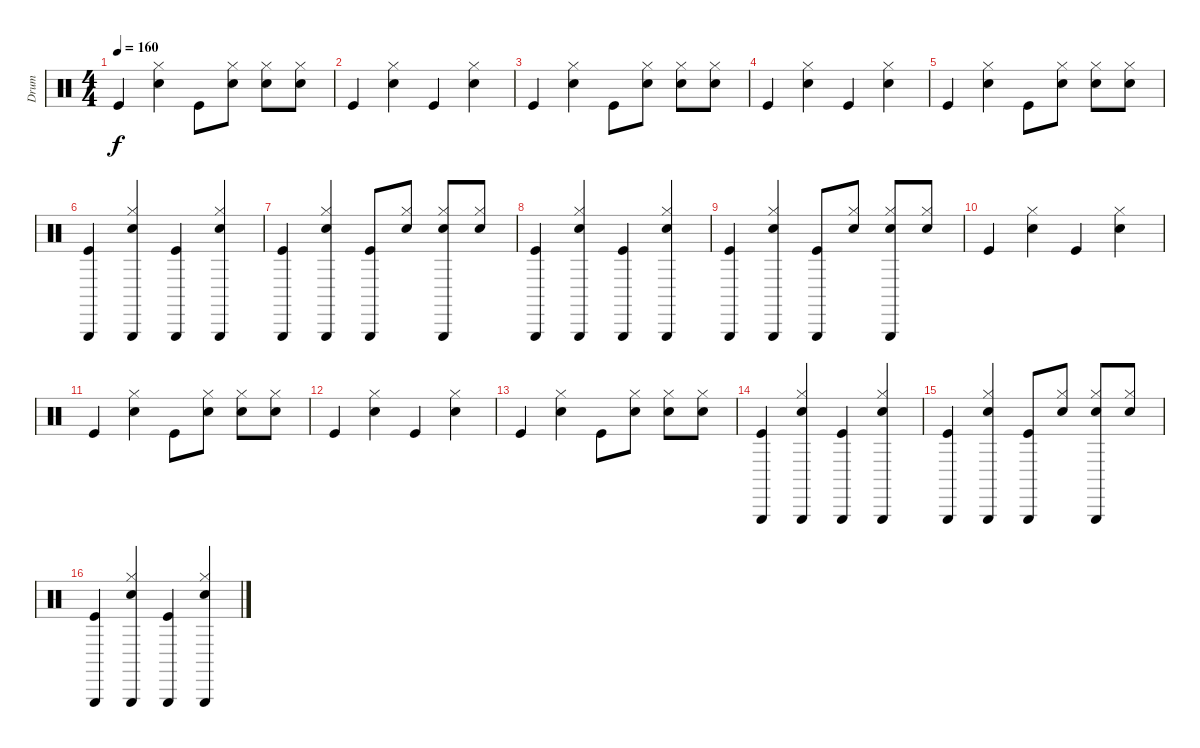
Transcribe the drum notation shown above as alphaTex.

\track ("Drum" "Drum") {instrument percussion}
\staff {score}
\articulation defaults
\ts (4 4)
\tempo 160
\clef neutral
\ks c "Kick (hit)".4{dy f}
("Hi-Hat (closed)" "Snare (hit) 2").4 "Kick (hit)".8 ("Hi-Hat (closed)" "Snare (hit) 2").8 ("Hi-Hat (closed)" "Snare (hit) 2").8 ("Hi-Hat (closed)" "Snare (hit) 2").8 |
"Kick (hit)".4 ("Hi-Hat (closed)" "Snare (hit) 2").4 "Kick (hit)".4 ("Hi-Hat (closed)" "Snare (hit) 2").4 |
"Kick (hit)".4 ("Hi-Hat (closed)" "Snare (hit) 2").4 "Kick (hit)".8 ("Hi-Hat (closed)" "Snare (hit) 2").8 ("Hi-Hat (closed)" "Snare (hit) 2").8 ("Hi-Hat (closed)" "Snare (hit) 2").8 |
"Kick (hit)".4 ("Hi-Hat (closed)" "Snare (hit) 2").4 "Kick (hit)".4 ("Hi-Hat (closed)" "Snare (hit) 2").4 |
"Kick (hit)".4 ("Hi-Hat (closed)" "Snare (hit) 2").4 "Kick (hit)".8 ("Hi-Hat (closed)" "Snare (hit) 2").8 ("Hi-Hat (closed)" "Snare (hit) 2").8 ("Hi-Hat (closed)" "Snare (hit) 2").8 |
("Triangle (hit)" "Kick (hit)").4 ("Triangle (hit)" "Hi-Hat (closed)" "Snare (hit) 2").4 ("Triangle (hit)" "Kick (hit)").4 ("Triangle (hit)" "Hi-Hat (closed)" "Snare (hit) 2").4 |
("Triangle (hit)" "Kick (hit)").4 ("Triangle (hit)" "Hi-Hat (closed)" "Snare (hit) 2").4 ("Triangle (hit)" "Kick (hit)").8 ("Hi-Hat (closed)" "Snare (hit) 2").8 ("Triangle (hit)" "Hi-Hat (closed)" "Snare (hit) 2").8 ("Hi-Hat (closed)" "Snare (hit) 2").8 |
("Triangle (hit)" "Kick (hit)").4 ("Triangle (hit)" "Hi-Hat (closed)" "Snare (hit) 2").4 ("Triangle (hit)" "Kick (hit)").4 ("Triangle (hit)" "Hi-Hat (closed)" "Snare (hit) 2").4 |
("Triangle (hit)" "Kick (hit)").4 ("Triangle (hit)" "Hi-Hat (closed)" "Snare (hit) 2").4 ("Triangle (hit)" "Kick (hit)").8 ("Hi-Hat (closed)" "Snare (hit) 2").8 ("Triangle (hit)" "Hi-Hat (closed)" "Snare (hit) 2").8 ("Hi-Hat (closed)" "Snare (hit) 2").8 |
"Kick (hit)".4 ("Hi-Hat (closed)" "Snare (hit) 2").4 "Kick (hit)".4 ("Hi-Hat (closed)" "Snare (hit) 2").4 |
"Kick (hit)".4 ("Hi-Hat (closed)" "Snare (hit) 2").4 "Kick (hit)".8 ("Hi-Hat (closed)" "Snare (hit) 2").8 ("Hi-Hat (closed)" "Snare (hit) 2").8 ("Hi-Hat (closed)" "Snare (hit) 2").8 |
"Kick (hit)".4 ("Hi-Hat (closed)" "Snare (hit) 2").4 "Kick (hit)".4 ("Hi-Hat (closed)" "Snare (hit) 2").4 |
"Kick (hit)".4 ("Hi-Hat (closed)" "Snare (hit) 2").4 "Kick (hit)".8 ("Hi-Hat (closed)" "Snare (hit) 2").8 ("Hi-Hat (closed)" "Snare (hit) 2").8 ("Hi-Hat (closed)" "Snare (hit) 2").8 |
("Triangle (hit)" "Kick (hit)").4 ("Triangle (hit)" "Hi-Hat (closed)" "Snare (hit) 2").4 ("Triangle (hit)" "Kick (hit)").4 ("Triangle (hit)" "Hi-Hat (closed)" "Snare (hit) 2").4 |
("Triangle (hit)" "Kick (hit)").4 ("Triangle (hit)" "Hi-Hat (closed)" "Snare (hit) 2").4 ("Triangle (hit)" "Kick (hit)").8 ("Hi-Hat (closed)" "Snare (hit) 2").8 ("Triangle (hit)" "Hi-Hat (closed)" "Snare (hit) 2").8 ("Hi-Hat (closed)" "Snare (hit) 2").8 |
("Triangle (hit)" "Kick (hit)").4 ("Triangle (hit)" "Hi-Hat (closed)" "Snare (hit) 2").4 ("Triangle (hit)" "Kick (hit)").4 ("Triangle (hit)" "Hi-Hat (closed)" "Snare (hit) 2").4
